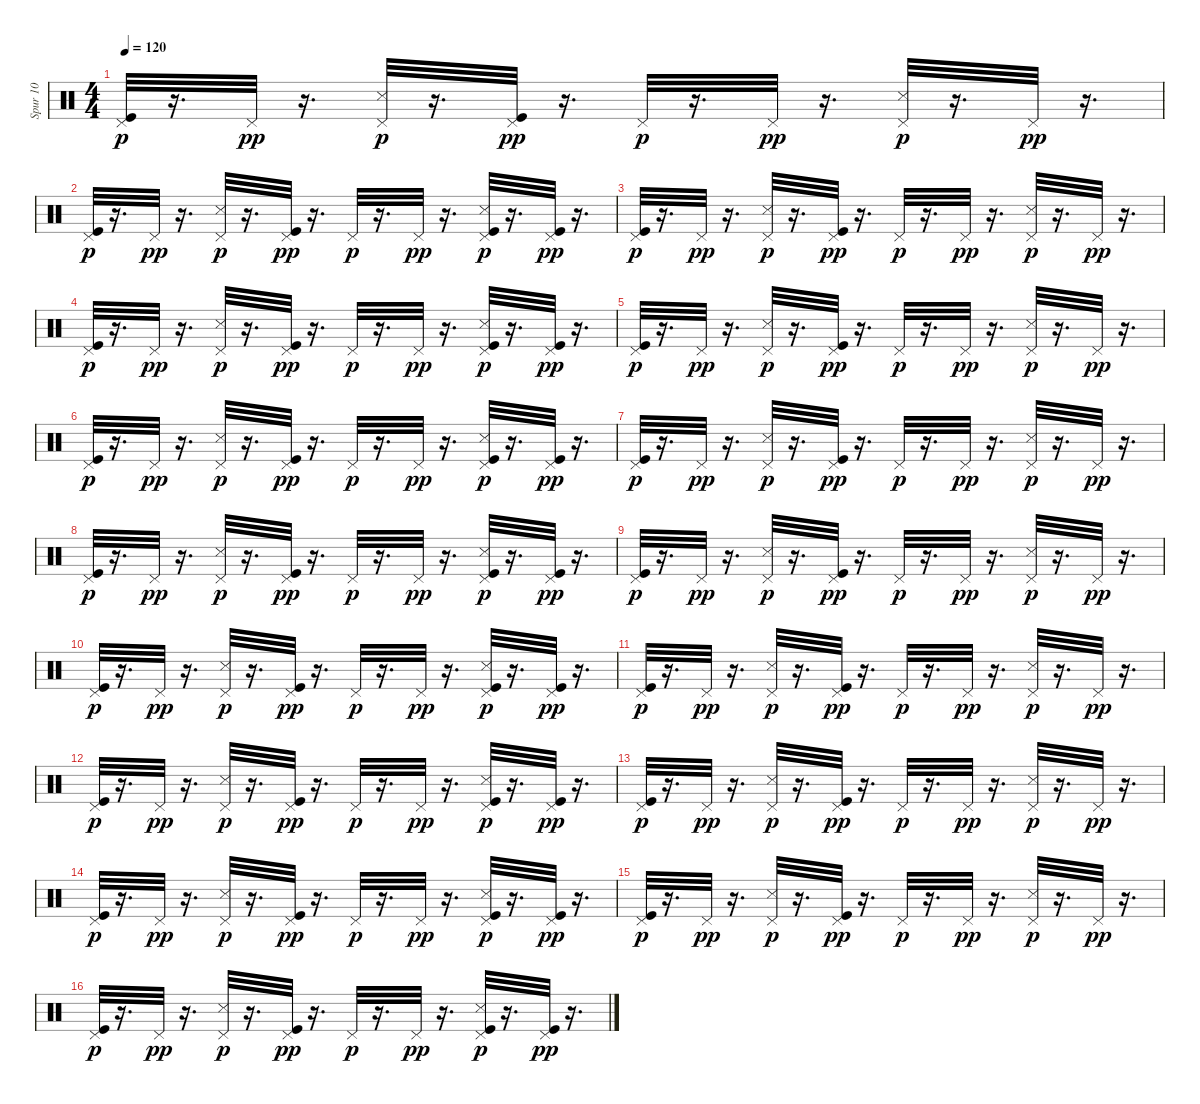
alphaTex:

\track ("Spur 10" "Spur 10") {instrument percussion}
\staff {score}
\articulation defaults
\ts (4 4)
\tempo 120
\clef neutral
\ks c
("Kick (hit)" "Pedal Hi-Hat (hit)").32{dy p} r.16{d} "Pedal Hi-Hat (hit)".32{dy pp} r.16{d} ("Snare (side stick) 3" "Pedal Hi-Hat (hit)").32{dy p} r.16{d} ("Kick (hit)" "Pedal Hi-Hat (hit)").32{dy pp} r.16{d} "Pedal Hi-Hat (hit)".32{dy p} r.16{d} "Pedal Hi-Hat (hit)".32{dy pp} r.16{d} ("Snare (side stick) 3" "Pedal Hi-Hat (hit)").32{dy p} r.16{d} "Pedal Hi-Hat (hit)".32{dy pp} r.16{d} |
("Kick (hit)" "Pedal Hi-Hat (hit)").32{dy p} r.16{d} "Pedal Hi-Hat (hit)".32{dy pp} r.16{d} ("Snare (side stick) 3" "Pedal Hi-Hat (hit)").32{dy p} r.16{d} ("Kick (hit)" "Pedal Hi-Hat (hit)").32{dy pp} r.16{d} "Pedal Hi-Hat (hit)".32{dy p} r.16{d} "Pedal Hi-Hat (hit)".32{dy pp} r.16{d} ("Kick (hit)" "Snare (side stick) 3" "Pedal Hi-Hat (hit)").32{dy p} r.16{d} ("Kick (hit)" "Pedal Hi-Hat (hit)").32{dy pp} r.16{d} |
("Kick (hit)" "Pedal Hi-Hat (hit)").32{dy p} r.16{d} "Pedal Hi-Hat (hit)".32{dy pp} r.16{d} ("Snare (side stick) 3" "Pedal Hi-Hat (hit)").32{dy p} r.16{d} ("Kick (hit)" "Pedal Hi-Hat (hit)").32{dy pp} r.16{d} "Pedal Hi-Hat (hit)".32{dy p} r.16{d} "Pedal Hi-Hat (hit)".32{dy pp} r.16{d} ("Snare (side stick) 3" "Pedal Hi-Hat (hit)").32{dy p} r.16{d} "Pedal Hi-Hat (hit)".32{dy pp} r.16{d} |
("Kick (hit)" "Pedal Hi-Hat (hit)").32{dy p} r.16{d} "Pedal Hi-Hat (hit)".32{dy pp} r.16{d} ("Snare (side stick) 3" "Pedal Hi-Hat (hit)").32{dy p} r.16{d} ("Kick (hit)" "Pedal Hi-Hat (hit)").32{dy pp} r.16{d} "Pedal Hi-Hat (hit)".32{dy p} r.16{d} "Pedal Hi-Hat (hit)".32{dy pp} r.16{d} ("Kick (hit)" "Snare (side stick) 3" "Pedal Hi-Hat (hit)").32{dy p} r.16{d} ("Kick (hit)" "Pedal Hi-Hat (hit)").32{dy pp} r.16{d} |
("Kick (hit)" "Pedal Hi-Hat (hit)").32{dy p} r.16{d} "Pedal Hi-Hat (hit)".32{dy pp} r.16{d} ("Snare (side stick) 3" "Pedal Hi-Hat (hit)").32{dy p} r.16{d} ("Kick (hit)" "Pedal Hi-Hat (hit)").32{dy pp} r.16{d} "Pedal Hi-Hat (hit)".32{dy p} r.16{d} "Pedal Hi-Hat (hit)".32{dy pp} r.16{d} ("Snare (side stick) 3" "Pedal Hi-Hat (hit)").32{dy p} r.16{d} "Pedal Hi-Hat (hit)".32{dy pp} r.16{d} |
("Kick (hit)" "Pedal Hi-Hat (hit)").32{dy p} r.16{d} "Pedal Hi-Hat (hit)".32{dy pp} r.16{d} ("Snare (side stick) 3" "Pedal Hi-Hat (hit)").32{dy p} r.16{d} ("Kick (hit)" "Pedal Hi-Hat (hit)").32{dy pp} r.16{d} "Pedal Hi-Hat (hit)".32{dy p} r.16{d} "Pedal Hi-Hat (hit)".32{dy pp} r.16{d} ("Kick (hit)" "Snare (side stick) 3" "Pedal Hi-Hat (hit)").32{dy p} r.16{d} ("Kick (hit)" "Pedal Hi-Hat (hit)").32{dy pp} r.16{d} |
("Kick (hit)" "Pedal Hi-Hat (hit)").32{dy p} r.16{d} "Pedal Hi-Hat (hit)".32{dy pp} r.16{d} ("Snare (side stick) 3" "Pedal Hi-Hat (hit)").32{dy p} r.16{d} ("Kick (hit)" "Pedal Hi-Hat (hit)").32{dy pp} r.16{d} "Pedal Hi-Hat (hit)".32{dy p} r.16{d} "Pedal Hi-Hat (hit)".32{dy pp} r.16{d} ("Snare (side stick) 3" "Pedal Hi-Hat (hit)").32{dy p} r.16{d} "Pedal Hi-Hat (hit)".32{dy pp} r.16{d} |
("Kick (hit)" "Pedal Hi-Hat (hit)").32{dy p} r.16{d} "Pedal Hi-Hat (hit)".32{dy pp} r.16{d} ("Snare (side stick) 3" "Pedal Hi-Hat (hit)").32{dy p} r.16{d} ("Kick (hit)" "Pedal Hi-Hat (hit)").32{dy pp} r.16{d} "Pedal Hi-Hat (hit)".32{dy p} r.16{d} "Pedal Hi-Hat (hit)".32{dy pp} r.16{d} ("Kick (hit)" "Snare (side stick) 3" "Pedal Hi-Hat (hit)").32{dy p} r.16{d} ("Kick (hit)" "Pedal Hi-Hat (hit)").32{dy pp} r.16{d} |
("Kick (hit)" "Pedal Hi-Hat (hit)").32{dy p} r.16{d} "Pedal Hi-Hat (hit)".32{dy pp} r.16{d} ("Snare (side stick) 3" "Pedal Hi-Hat (hit)").32{dy p} r.16{d} ("Kick (hit)" "Pedal Hi-Hat (hit)").32{dy pp} r.16{d} "Pedal Hi-Hat (hit)".32{dy p} r.16{d} "Pedal Hi-Hat (hit)".32{dy pp} r.16{d} ("Snare (side stick) 3" "Pedal Hi-Hat (hit)").32{dy p} r.16{d} "Pedal Hi-Hat (hit)".32{dy pp} r.16{d} |
("Kick (hit)" "Pedal Hi-Hat (hit)").32{dy p} r.16{d} "Pedal Hi-Hat (hit)".32{dy pp} r.16{d} ("Snare (side stick) 3" "Pedal Hi-Hat (hit)").32{dy p} r.16{d} ("Kick (hit)" "Pedal Hi-Hat (hit)").32{dy pp} r.16{d} "Pedal Hi-Hat (hit)".32{dy p} r.16{d} "Pedal Hi-Hat (hit)".32{dy pp} r.16{d} ("Kick (hit)" "Snare (side stick) 3" "Pedal Hi-Hat (hit)").32{dy p} r.16{d} ("Kick (hit)" "Pedal Hi-Hat (hit)").32{dy pp} r.16{d} |
("Kick (hit)" "Pedal Hi-Hat (hit)").32{dy p} r.16{d} "Pedal Hi-Hat (hit)".32{dy pp} r.16{d} ("Snare (side stick) 3" "Pedal Hi-Hat (hit)").32{dy p} r.16{d} ("Kick (hit)" "Pedal Hi-Hat (hit)").32{dy pp} r.16{d} "Pedal Hi-Hat (hit)".32{dy p} r.16{d} "Pedal Hi-Hat (hit)".32{dy pp} r.16{d} ("Snare (side stick) 3" "Pedal Hi-Hat (hit)").32{dy p} r.16{d} "Pedal Hi-Hat (hit)".32{dy pp} r.16{d} |
("Kick (hit)" "Pedal Hi-Hat (hit)").32{dy p} r.16{d} "Pedal Hi-Hat (hit)".32{dy pp} r.16{d} ("Snare (side stick) 3" "Pedal Hi-Hat (hit)").32{dy p} r.16{d} ("Kick (hit)" "Pedal Hi-Hat (hit)").32{dy pp} r.16{d} "Pedal Hi-Hat (hit)".32{dy p} r.16{d} "Pedal Hi-Hat (hit)".32{dy pp} r.16{d} ("Kick (hit)" "Snare (side stick) 3" "Pedal Hi-Hat (hit)").32{dy p} r.16{d} ("Kick (hit)" "Pedal Hi-Hat (hit)").32{dy pp} r.16{d} |
("Kick (hit)" "Pedal Hi-Hat (hit)").32{dy p} r.16{d} "Pedal Hi-Hat (hit)".32{dy pp} r.16{d} ("Snare (side stick) 3" "Pedal Hi-Hat (hit)").32{dy p} r.16{d} ("Kick (hit)" "Pedal Hi-Hat (hit)").32{dy pp} r.16{d} "Pedal Hi-Hat (hit)".32{dy p} r.16{d} "Pedal Hi-Hat (hit)".32{dy pp} r.16{d} ("Snare (side stick) 3" "Pedal Hi-Hat (hit)").32{dy p} r.16{d} "Pedal Hi-Hat (hit)".32{dy pp} r.16{d} |
("Kick (hit)" "Pedal Hi-Hat (hit)").32{dy p} r.16{d} "Pedal Hi-Hat (hit)".32{dy pp} r.16{d} ("Snare (side stick) 3" "Pedal Hi-Hat (hit)").32{dy p} r.16{d} ("Kick (hit)" "Pedal Hi-Hat (hit)").32{dy pp} r.16{d} "Pedal Hi-Hat (hit)".32{dy p} r.16{d} "Pedal Hi-Hat (hit)".32{dy pp} r.16{d} ("Kick (hit)" "Snare (side stick) 3" "Pedal Hi-Hat (hit)").32{dy p} r.16{d} ("Kick (hit)" "Pedal Hi-Hat (hit)").32{dy pp} r.16{d} |
("Kick (hit)" "Pedal Hi-Hat (hit)").32{dy p} r.16{d} "Pedal Hi-Hat (hit)".32{dy pp} r.16{d} ("Snare (side stick) 3" "Pedal Hi-Hat (hit)").32{dy p} r.16{d} ("Kick (hit)" "Pedal Hi-Hat (hit)").32{dy pp} r.16{d} "Pedal Hi-Hat (hit)".32{dy p} r.16{d} "Pedal Hi-Hat (hit)".32{dy pp} r.16{d} ("Snare (side stick) 3" "Pedal Hi-Hat (hit)").32{dy p} r.16{d} "Pedal Hi-Hat (hit)".32{dy pp} r.16{d} |
("Kick (hit)" "Pedal Hi-Hat (hit)").32{dy p} r.16{d} "Pedal Hi-Hat (hit)".32{dy pp} r.16{d} ("Snare (side stick) 3" "Pedal Hi-Hat (hit)").32{dy p} r.16{d} ("Kick (hit)" "Pedal Hi-Hat (hit)").32{dy pp} r.16{d} "Pedal Hi-Hat (hit)".32{dy p} r.16{d} "Pedal Hi-Hat (hit)".32{dy pp} r.16{d} ("Kick (hit)" "Snare (side stick) 3" "Pedal Hi-Hat (hit)").32{dy p} r.16{d} ("Kick (hit)" "Pedal Hi-Hat (hit)").32{dy pp} r.16{d}
